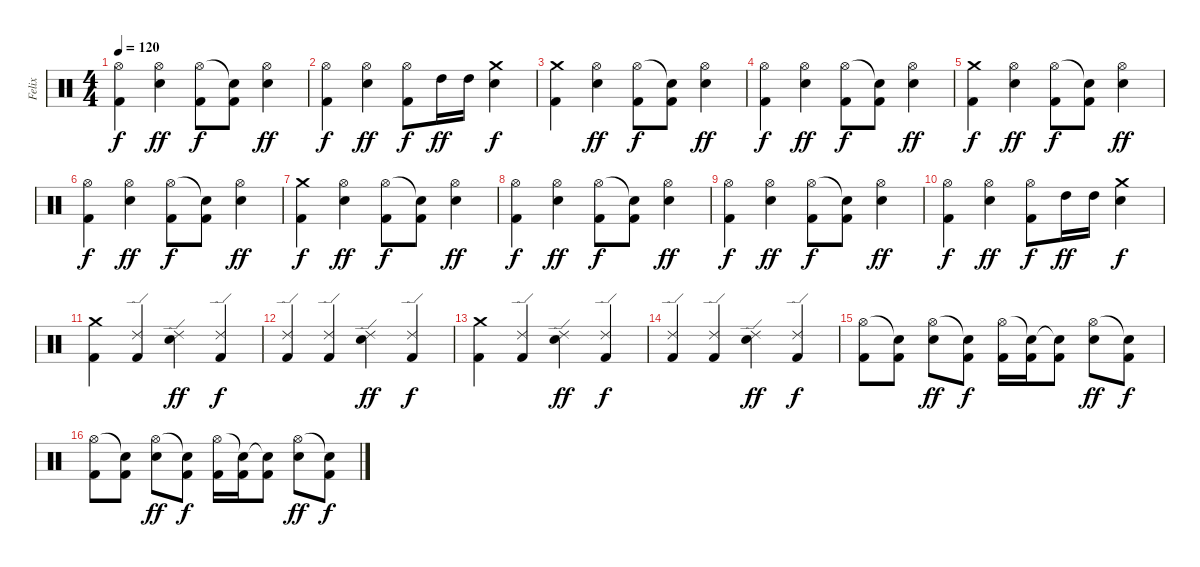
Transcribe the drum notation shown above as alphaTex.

\track ("Felix" "Felix") {instrument percussion}
\staff {score}
\articulation defaults
\ts (4 4)
\tempo 120
\clef neutral
\ks c
("Hi-Hat (open)" "Kick (hit) 2").4{dy f} ("Hi-Hat (open)" "Electric Snare (hit)").4{dy ff} ("Hi-Hat (open)" "Kick (hit) 2").8{dy f} ("Snare (hit)"{t} "Kick (hit) 2").8 ("Hi-Hat (open)" "Electric Snare (hit)").4{dy ff} |
("Hi-Hat (open)" "Kick (hit) 2").4{dy f} ("Hi-Hat (open)" "Electric Snare (hit)").4{dy ff} ("Hi-Hat (open)" "Kick (hit) 2").8{dy f} "High Tom (hit)".16{dy ff} "High Tom (hit)".16 ("Crash medium (hit)" "Electric Snare (hit)").4{dy f} |
("Crash medium (hit)" "Kick (hit) 2").4 ("Hi-Hat (open)" "Electric Snare (hit)").4{dy ff} ("Hi-Hat (open)" "Kick (hit) 2").8{dy f} ("Snare (hit)"{t} "Kick (hit) 2").8 ("Hi-Hat (open)" "Electric Snare (hit)").4{dy ff} |
("Hi-Hat (open)" "Kick (hit) 2").4{dy f} ("Hi-Hat (open)" "Electric Snare (hit)").4{dy ff} ("Hi-Hat (open)" "Kick (hit) 2").8{dy f} ("Snare (hit)"{t} "Kick (hit) 2").8 ("Hi-Hat (open)" "Electric Snare (hit)").4{dy ff} |
("Crash medium (hit)" "Kick (hit) 2").4{dy f} ("Hi-Hat (open)" "Electric Snare (hit)").4{dy ff} ("Hi-Hat (open)" "Kick (hit) 2").8{dy f} ("Snare (hit)"{t} "Kick (hit) 2").8 ("Hi-Hat (open)" "Electric Snare (hit)").4{dy ff} |
("Hi-Hat (open)" "Kick (hit) 2").4{dy f} ("Hi-Hat (open)" "Electric Snare (hit)").4{dy ff} ("Hi-Hat (open)" "Kick (hit) 2").8{dy f} ("Snare (hit)"{t} "Kick (hit) 2").8 ("Hi-Hat (open)" "Electric Snare (hit)").4{dy ff} |
("Crash medium (hit)" "Kick (hit) 2").4{dy f} ("Hi-Hat (open)" "Electric Snare (hit)").4{dy ff} ("Hi-Hat (open)" "Kick (hit) 2").8{dy f} ("Snare (hit)"{t} "Kick (hit) 2").8 ("Hi-Hat (open)" "Electric Snare (hit)").4{dy ff} |
("Hi-Hat (open)" "Kick (hit) 2").4{dy f} ("Hi-Hat (open)" "Electric Snare (hit)").4{dy ff} ("Hi-Hat (open)" "Kick (hit) 2").8{dy f} ("Snare (hit)"{t} "Kick (hit) 2").8 ("Hi-Hat (open)" "Electric Snare (hit)").4{dy ff} |
("Hi-Hat (open)" "Kick (hit) 2").4{dy f} ("Hi-Hat (open)" "Electric Snare (hit)").4{dy ff} ("Hi-Hat (open)" "Kick (hit) 2").8{dy f} ("Snare (hit)"{t} "Kick (hit) 2").8 ("Hi-Hat (open)" "Electric Snare (hit)").4{dy ff} |
("Hi-Hat (open)" "Kick (hit) 2").4{dy f} ("Hi-Hat (open)" "Electric Snare (hit)").4{dy ff} ("Hi-Hat (open)" "Kick (hit) 2").8{dy f} "High Tom (hit)".16{dy ff} "High Tom (hit)".16 ("Crash medium (hit)" "Electric Snare (hit)").4{dy f} |
("Crash medium (hit)" "Kick (hit) 2").4 ("Ride (edge) 2" "Kick (hit) 2").4 ("Ride (edge) 2" "Electric Snare (hit)").4{dy ff} ("Ride (edge) 2" "Kick (hit) 2").4{dy f} |
("Ride (edge) 2" "Kick (hit) 2").4 ("Ride (edge) 2" "Kick (hit) 2").4 ("Ride (edge) 2" "Electric Snare (hit)").4{dy ff} ("Ride (edge) 2" "Kick (hit) 2").4{dy f} |
("Crash medium (hit)" "Kick (hit) 2").4 ("Ride (edge) 2" "Kick (hit) 2").4 ("Ride (edge) 2" "Electric Snare (hit)").4{dy ff} ("Ride (edge) 2" "Kick (hit) 2").4{dy f} |
("Ride (edge) 2" "Kick (hit) 2").4 ("Ride (edge) 2" "Kick (hit) 2").4 ("Ride (edge) 2" "Electric Snare (hit)").4{dy ff} ("Ride (edge) 2" "Kick (hit) 2").4{dy f} |
("Hi-Hat (open)" "Kick (hit) 2").8 ("Snare (hit)"{t} "Kick (hit) 2").8 ("Hi-Hat (open)" "Electric Snare (hit)").8{dy ff} ("Snare (hit)"{t} "Kick (hit) 2").8{dy f} ("Hi-Hat (open)" "Kick (hit) 2").16 ("Snare (hit)"{t} "Kick (hit) 2").16 ("Snare (hit)"{t} "Kick (hit) 2").8 ("Hi-Hat (open)" "Electric Snare (hit)").8{dy ff} ("Snare (hit)"{t} "Kick (hit) 2").8{dy f} |
("Hi-Hat (open)" "Kick (hit) 2").8 ("Snare (hit)"{t} "Kick (hit) 2").8 ("Hi-Hat (open)" "Electric Snare (hit)").8{dy ff} ("Snare (hit)"{t} "Kick (hit) 2").8{dy f} ("Hi-Hat (open)" "Kick (hit) 2").16 ("Snare (hit)"{t} "Kick (hit) 2").16 ("Snare (hit)"{t} "Kick (hit) 2").8 ("Hi-Hat (open)" "Electric Snare (hit)").8{dy ff} ("Snare (hit)"{t} "Kick (hit) 2").8{dy f}
